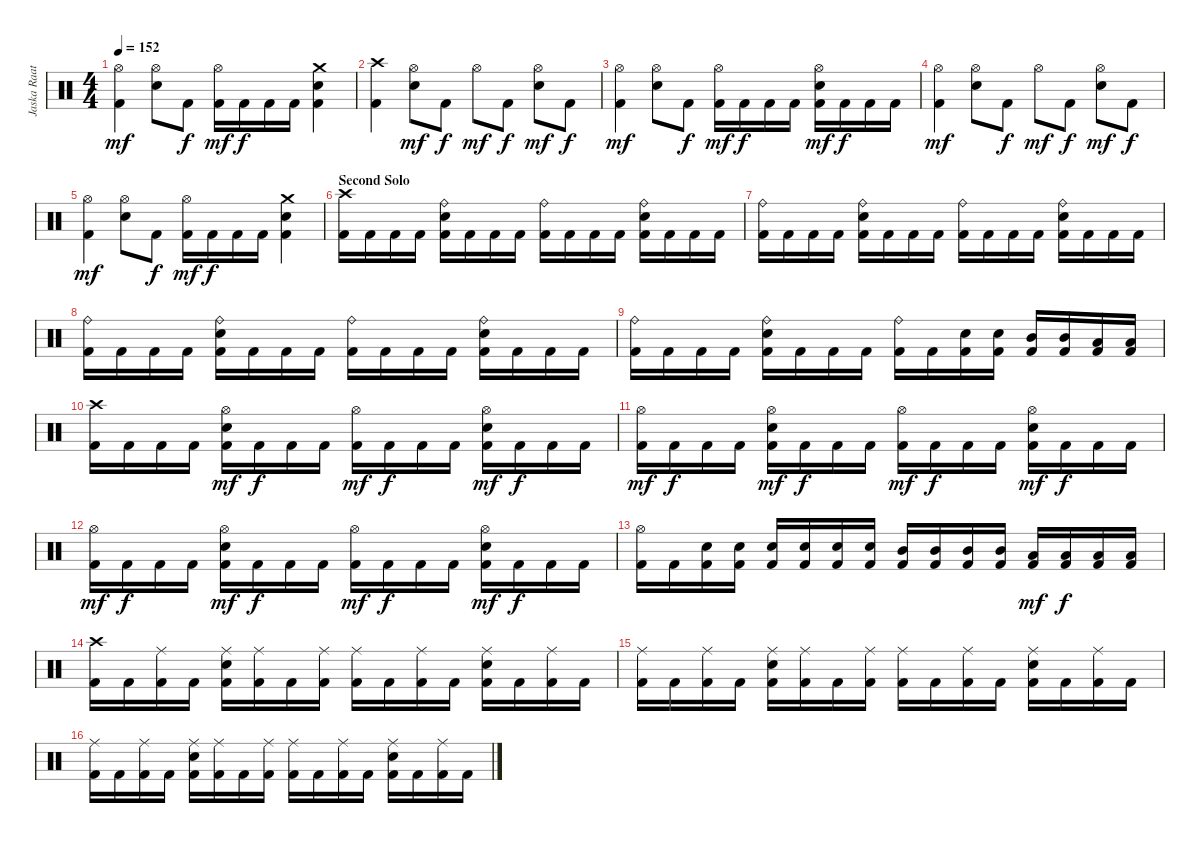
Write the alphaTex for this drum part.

\track ("Jaska Raatikainen" "Jaska Raat") {instrument percussion}
\staff {score}
\articulation defaults
\ts (4 4)
\tempo 152
\clef neutral
\ks c
("Hi-Hat (open)" "Kick (hit) 2").4{dy mf} ("Hi-Hat (open)" "Electric Snare (hit)").8 "Kick (hit) 2".8{dy f} ("Hi-Hat (open)" "Kick (hit) 2").16{dy mf} "Kick (hit) 2".16{dy f} "Kick (hit) 2".16 "Kick (hit) 2".16 ("Crash medium (hit)" "Electric Snare (hit)" "Kick (hit) 2").4 |
("Crash high (hit)" "Kick (hit) 2").4 ("Hi-Hat (open)" "Electric Snare (hit)").8{dy mf} "Kick (hit) 2".8{dy f} "Hi-Hat (open)".8{dy mf} "Kick (hit) 2".8{dy f} ("Hi-Hat (open)" "Electric Snare (hit)").8{dy mf} "Kick (hit) 2".8{dy f} |
("Hi-Hat (open)" "Kick (hit) 2").4{dy mf} ("Hi-Hat (open)" "Electric Snare (hit)").8 "Kick (hit) 2".8{dy f} ("Hi-Hat (open)" "Kick (hit) 2").16{dy mf} "Kick (hit) 2".16{dy f} "Kick (hit) 2".16 "Kick (hit) 2".16 ("Hi-Hat (open)" "Electric Snare (hit)" "Kick (hit) 2").16{dy mf} "Kick (hit) 2".16{dy f} "Kick (hit) 2".16 "Kick (hit) 2".16 |
("Hi-Hat (open)" "Kick (hit) 2").4{dy mf} ("Hi-Hat (open)" "Electric Snare (hit)").8 "Kick (hit) 2".8{dy f} "Hi-Hat (open)".8{dy mf} "Kick (hit) 2".8{dy f} ("Hi-Hat (open)" "Electric Snare (hit)").8{dy mf} "Kick (hit) 2".8{dy f} |
("Hi-Hat (open)" "Kick (hit) 2").4{dy mf} ("Hi-Hat (open)" "Electric Snare (hit)").8 "Kick (hit) 2".8{dy f} ("Hi-Hat (open)" "Kick (hit) 2").16{dy mf} "Kick (hit) 2".16{dy f} "Kick (hit) 2".16 "Kick (hit) 2".16 ("Crash medium (hit)" "Electric Snare (hit)" "Kick (hit) 2").4 |
\section ("" "Second Solo")
("Crash high (hit)" "Kick (hit) 2").16 "Kick (hit) 2".16 "Kick (hit) 2".16 "Kick (hit) 2".16 ("Ride (bell)" "Electric Snare (hit)" "Kick (hit) 2").16 "Kick (hit) 2".16 "Kick (hit) 2".16 "Kick (hit) 2".16 ("Ride (bell)" "Kick (hit) 2").16 "Kick (hit) 2".16 "Kick (hit) 2".16 "Kick (hit) 2".16 ("Ride (bell)" "Electric Snare (hit)" "Kick (hit) 2").16 "Kick (hit) 2".16 "Kick (hit) 2".16 "Kick (hit) 2".16 |
("Ride (bell)" "Kick (hit) 2").16 "Kick (hit) 2".16 "Kick (hit) 2".16 "Kick (hit) 2".16 ("Ride (bell)" "Electric Snare (hit)" "Kick (hit) 2").16 "Kick (hit) 2".16 "Kick (hit) 2".16 "Kick (hit) 2".16 ("Ride (bell)" "Kick (hit) 2").16 "Kick (hit) 2".16 "Kick (hit) 2".16 "Kick (hit) 2".16 ("Ride (bell)" "Electric Snare (hit)" "Kick (hit) 2").16 "Kick (hit) 2".16 "Kick (hit) 2".16 "Kick (hit) 2".16 |
("Ride (bell)" "Kick (hit) 2").16 "Kick (hit) 2".16 "Kick (hit) 2".16 "Kick (hit) 2".16 ("Ride (bell)" "Electric Snare (hit)" "Kick (hit) 2").16 "Kick (hit) 2".16 "Kick (hit) 2".16 "Kick (hit) 2".16 ("Ride (bell)" "Kick (hit) 2").16 "Kick (hit) 2".16 "Kick (hit) 2".16 "Kick (hit) 2".16 ("Ride (bell)" "Electric Snare (hit)" "Kick (hit) 2").16 "Kick (hit) 2".16 "Kick (hit) 2".16 "Kick (hit) 2".16 |
("Ride (bell)" "Kick (hit) 2").16 "Kick (hit) 2".16 "Kick (hit) 2".16 "Kick (hit) 2".16 ("Ride (bell)" "Electric Snare (hit)" "Kick (hit) 2").16 "Kick (hit) 2".16 "Kick (hit) 2".16 "Kick (hit) 2".16 ("Ride (bell)" "Kick (hit) 2").16 "Kick (hit) 2".16 ("Electric Snare (hit)" "Kick (hit) 2").16 ("Electric Snare (hit)" "Kick (hit) 2").16 ("Mid Tom (hit)" "Kick (hit) 2").16 ("Mid Tom (hit)" "Kick (hit) 2").16 ("Low Tom (hit)" "Kick (hit) 2").16 ("Low Tom (hit)" "Kick (hit) 2").16 |
("Crash high (hit)" "Kick (hit) 2").16 "Kick (hit) 2".16 "Kick (hit) 2".16 "Kick (hit) 2".16 ("Hi-Hat (open)" "Electric Snare (hit)" "Kick (hit) 2").16{dy mf} "Kick (hit) 2".16{dy f} "Kick (hit) 2".16 "Kick (hit) 2".16 ("Hi-Hat (open)" "Kick (hit) 2").16{dy mf} "Kick (hit) 2".16{dy f} "Kick (hit) 2".16 "Kick (hit) 2".16 ("Hi-Hat (open)" "Electric Snare (hit)" "Kick (hit) 2").16{dy mf} "Kick (hit) 2".16{dy f} "Kick (hit) 2".16 "Kick (hit) 2".16 |
("Hi-Hat (open)" "Kick (hit) 2").16{dy mf} "Kick (hit) 2".16{dy f} "Kick (hit) 2".16 "Kick (hit) 2".16 ("Hi-Hat (open)" "Electric Snare (hit)" "Kick (hit) 2").16{dy mf} "Kick (hit) 2".16{dy f} "Kick (hit) 2".16 "Kick (hit) 2".16 ("Hi-Hat (open)" "Kick (hit) 2").16{dy mf} "Kick (hit) 2".16{dy f} "Kick (hit) 2".16 "Kick (hit) 2".16 ("Hi-Hat (open)" "Electric Snare (hit)" "Kick (hit) 2").16{dy mf} "Kick (hit) 2".16{dy f} "Kick (hit) 2".16 "Kick (hit) 2".16 |
("Hi-Hat (open)" "Kick (hit) 2").16{dy mf} "Kick (hit) 2".16{dy f} "Kick (hit) 2".16 "Kick (hit) 2".16 ("Hi-Hat (open)" "Electric Snare (hit)" "Kick (hit) 2").16{dy mf} "Kick (hit) 2".16{dy f} "Kick (hit) 2".16 "Kick (hit) 2".16 ("Hi-Hat (open)" "Kick (hit) 2").16{dy mf} "Kick (hit) 2".16{dy f} "Kick (hit) 2".16 "Kick (hit) 2".16 ("Hi-Hat (open)" "Electric Snare (hit)" "Kick (hit) 2").16{dy mf} "Kick (hit) 2".16{dy f} "Kick (hit) 2".16 "Kick (hit) 2".16 |
("Hi-Hat (open)" "Kick (hit) 2").16 "Kick (hit) 2".16 ("Electric Snare (hit)" "Kick (hit) 2").16 ("Electric Snare (hit)" "Kick (hit) 2").16 ("Electric Snare (hit)" "Kick (hit) 2").16 ("Electric Snare (hit)" "Kick (hit) 2").16 ("Electric Snare (hit)" "Kick (hit) 2").16 ("Electric Snare (hit)" "Kick (hit) 2").16 ("Mid Tom (hit)" "Kick (hit) 2").16 ("Mid Tom (hit)" "Kick (hit) 2").16 ("Mid Tom (hit)" "Kick (hit) 2").16 ("Mid Tom (hit)" "Kick (hit) 2").16 ("Low Tom (hit)" "Kick (hit) 2").16{dy mf} ("Low Tom (hit)" "Kick (hit) 2").16{dy f} ("Low Tom (hit)" "Kick (hit) 2").16 ("Low Tom (hit)" "Kick (hit) 2").16 |
("Crash high (hit)" "Kick (hit) 2").16 "Kick (hit) 2".16 ("Ride (middle)" "Kick (hit) 2").16 "Kick (hit) 2".16 ("Ride (middle)" "Electric Snare (hit)" "Kick (hit) 2").16 ("Ride (middle)" "Kick (hit) 2").16 "Kick (hit) 2".16 ("Ride (middle)" "Kick (hit) 2").16 ("Ride (middle)" "Kick (hit) 2").16 "Kick (hit) 2".16 ("Ride (middle)" "Kick (hit) 2").16 "Kick (hit) 2".16 ("Ride (middle)" "Electric Snare (hit)" "Kick (hit) 2").16 "Kick (hit) 2".16 ("Ride (middle)" "Kick (hit) 2").16 "Kick (hit) 2".16 |
("Ride (middle)" "Kick (hit) 2").16 "Kick (hit) 2".16 ("Ride (middle)" "Kick (hit) 2").16 "Kick (hit) 2".16 ("Ride (middle)" "Electric Snare (hit)" "Kick (hit) 2").16 ("Ride (middle)" "Kick (hit) 2").16 "Kick (hit) 2".16 ("Ride (middle)" "Kick (hit) 2").16 ("Ride (middle)" "Kick (hit) 2").16 "Kick (hit) 2".16 ("Ride (middle)" "Kick (hit) 2").16 "Kick (hit) 2".16 ("Ride (middle)" "Electric Snare (hit)" "Kick (hit) 2").16 "Kick (hit) 2".16 ("Ride (middle)" "Kick (hit) 2").16 "Kick (hit) 2".16 |
("Ride (middle)" "Kick (hit) 2").16 "Kick (hit) 2".16 ("Ride (middle)" "Kick (hit) 2").16 "Kick (hit) 2".16 ("Ride (middle)" "Electric Snare (hit)" "Kick (hit) 2").16 ("Ride (middle)" "Kick (hit) 2").16 "Kick (hit) 2".16 ("Ride (middle)" "Kick (hit) 2").16 ("Ride (middle)" "Kick (hit) 2").16 "Kick (hit) 2".16 ("Ride (middle)" "Kick (hit) 2").16 "Kick (hit) 2".16 ("Ride (middle)" "Electric Snare (hit)" "Kick (hit) 2").16 "Kick (hit) 2".16 ("Ride (middle)" "Kick (hit) 2").16 "Kick (hit) 2".16
